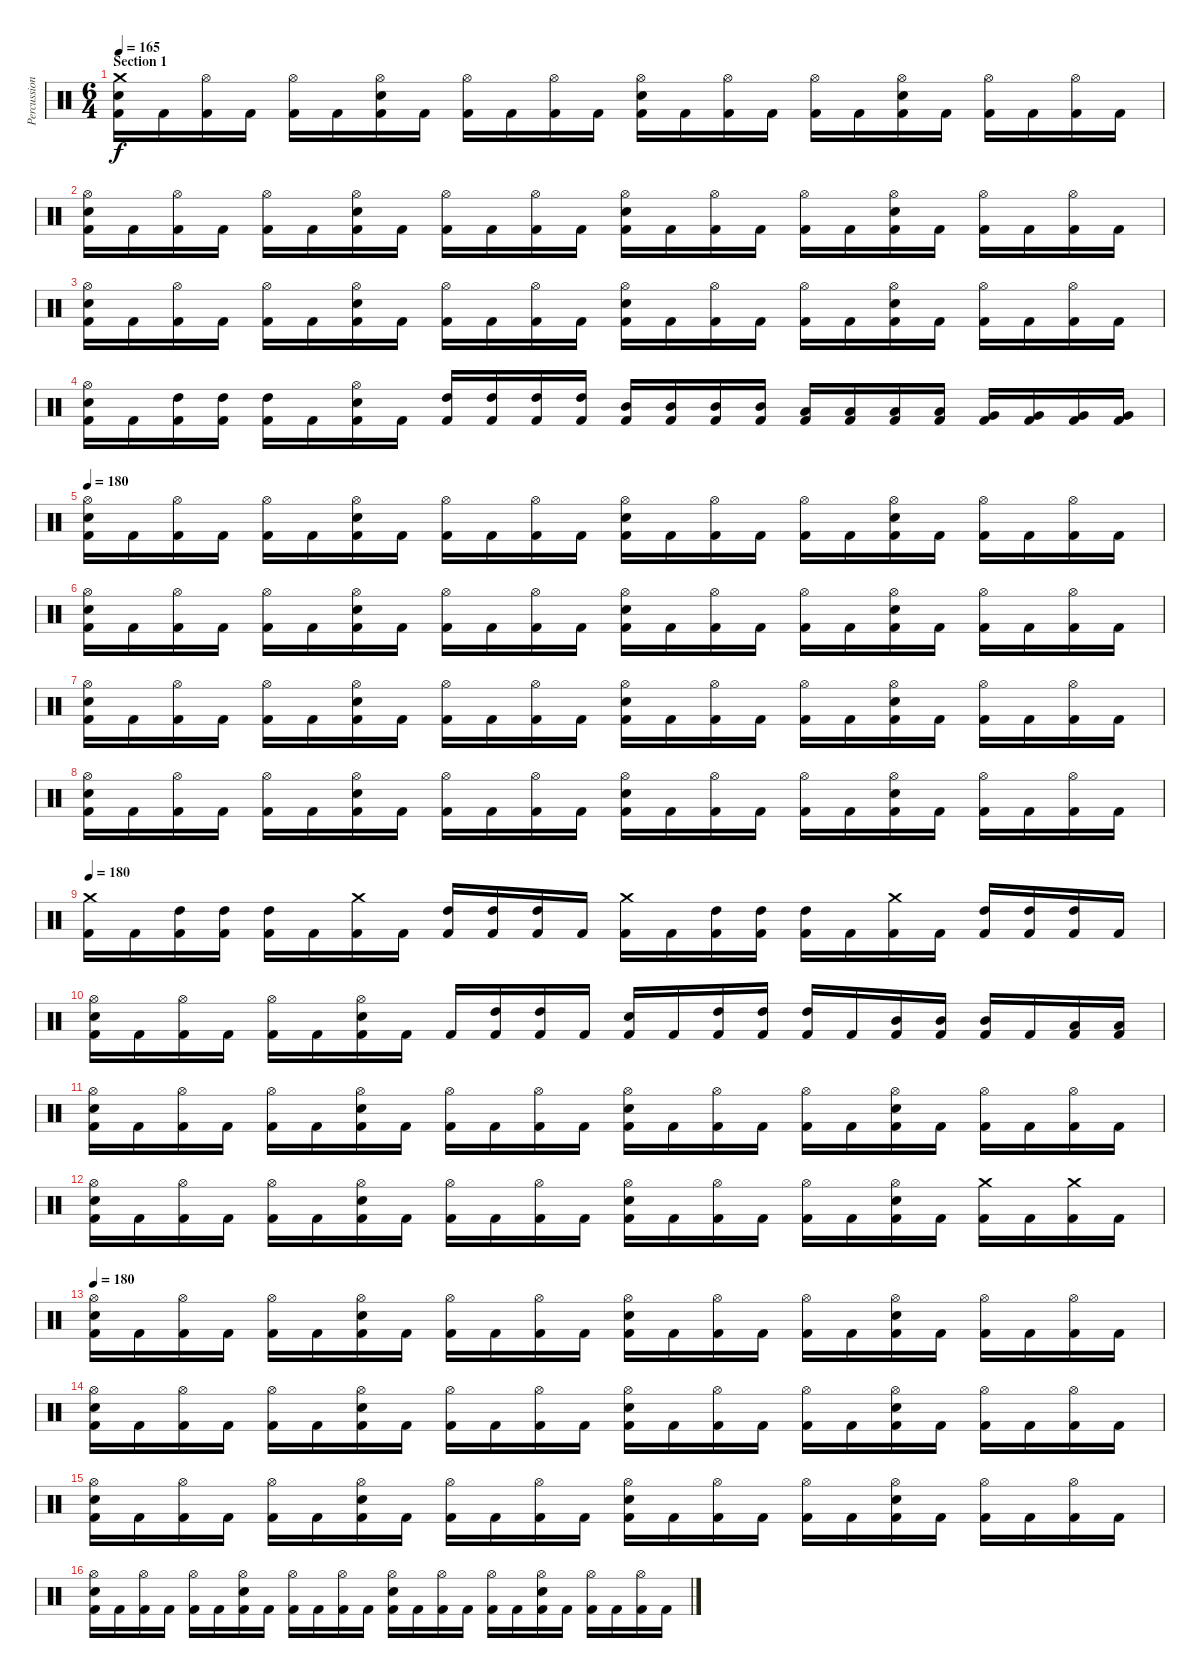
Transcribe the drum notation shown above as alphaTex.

\track ("Percussion" "Percussion") {instrument percussion}
\staff {score}
\articulation defaults
\ts (6 4)
\section ("" "Section 1")
\tempo 165
\tempo 180
\tempo 165
\clef neutral
\ks c
("Crash medium (hit)" "Electric Snare (hit)" "Kick (hit) 2").16{dy f} "Kick (hit) 2".16 ("Hi-Hat (open)" "Kick (hit) 2").16 "Kick (hit) 2".16 ("Hi-Hat (open)" "Kick (hit) 2").16 "Kick (hit) 2".16 ("Hi-Hat (open)" "Electric Snare (hit)" "Kick (hit) 2").16 "Kick (hit) 2".16 ("Hi-Hat (open)" "Kick (hit) 2").16 "Kick (hit) 2".16 ("Hi-Hat (open)" "Kick (hit) 2").16 "Kick (hit) 2".16 ("Hi-Hat (open)" "Electric Snare (hit)" "Kick (hit) 2").16 "Kick (hit) 2".16 ("Hi-Hat (open)" "Kick (hit) 2").16 "Kick (hit) 2".16 ("Hi-Hat (open)" "Kick (hit) 2").16 "Kick (hit) 2".16 ("Hi-Hat (open)" "Electric Snare (hit)" "Kick (hit) 2").16 "Kick (hit) 2".16 ("Hi-Hat (open)" "Kick (hit) 2").16 "Kick (hit) 2".16 ("Hi-Hat (open)" "Kick (hit) 2").16 "Kick (hit) 2".16 |
("Hi-Hat (open)" "Electric Snare (hit)" "Kick (hit) 2").16 "Kick (hit) 2".16 ("Hi-Hat (open)" "Kick (hit) 2").16 "Kick (hit) 2".16 ("Hi-Hat (open)" "Kick (hit) 2").16 "Kick (hit) 2".16 ("Hi-Hat (open)" "Electric Snare (hit)" "Kick (hit) 2").16 "Kick (hit) 2".16 ("Hi-Hat (open)" "Kick (hit) 2").16 "Kick (hit) 2".16 ("Hi-Hat (open)" "Kick (hit) 2").16 "Kick (hit) 2".16 ("Hi-Hat (open)" "Electric Snare (hit)" "Kick (hit) 2").16 "Kick (hit) 2".16 ("Hi-Hat (open)" "Kick (hit) 2").16 "Kick (hit) 2".16 ("Hi-Hat (open)" "Kick (hit) 2").16 "Kick (hit) 2".16 ("Hi-Hat (open)" "Electric Snare (hit)" "Kick (hit) 2").16 "Kick (hit) 2".16 ("Hi-Hat (open)" "Kick (hit) 2").16 "Kick (hit) 2".16 ("Hi-Hat (open)" "Kick (hit) 2").16 "Kick (hit) 2".16 |
("Hi-Hat (open)" "Electric Snare (hit)" "Kick (hit) 2").16 "Kick (hit) 2".16 ("Hi-Hat (open)" "Kick (hit) 2").16 "Kick (hit) 2".16 ("Hi-Hat (open)" "Kick (hit) 2").16 "Kick (hit) 2".16 ("Hi-Hat (open)" "Electric Snare (hit)" "Kick (hit) 2").16 "Kick (hit) 2".16 ("Hi-Hat (open)" "Kick (hit) 2").16 "Kick (hit) 2".16 ("Hi-Hat (open)" "Kick (hit) 2").16 "Kick (hit) 2".16 ("Hi-Hat (open)" "Electric Snare (hit)" "Kick (hit) 2").16 "Kick (hit) 2".16 ("Hi-Hat (open)" "Kick (hit) 2").16 "Kick (hit) 2".16 ("Hi-Hat (open)" "Kick (hit) 2").16 "Kick (hit) 2".16 ("Hi-Hat (open)" "Electric Snare (hit)" "Kick (hit) 2").16 "Kick (hit) 2".16 ("Hi-Hat (open)" "Kick (hit) 2").16 "Kick (hit) 2".16 ("Hi-Hat (open)" "Kick (hit) 2").16 "Kick (hit) 2".16 |
("Hi-Hat (open)" "Electric Snare (hit)" "Kick (hit) 2").16 "Kick (hit) 2".16 ("High Tom (hit)" "Kick (hit) 2").16 ("High Tom (hit)" "Kick (hit) 2").16 ("High Tom (hit)" "Kick (hit) 2").16 "Kick (hit) 2".16 ("Hi-Hat (open)" "Electric Snare (hit)" "Kick (hit) 2").16 "Kick (hit) 2".16 ("High Tom (hit)" "Kick (hit) 2").16 ("High Tom (hit)" "Kick (hit) 2").16 ("High Tom (hit)" "Kick (hit) 2").16 ("High Tom (hit)" "Kick (hit) 2").16 ("Mid Tom (hit)" "Kick (hit) 2").16 ("Mid Tom (hit)" "Kick (hit) 2").16 ("Mid Tom (hit)" "Kick (hit) 2").16 ("Mid Tom (hit)" "Kick (hit) 2").16 ("Low Tom (hit)" "Kick (hit) 2").16 ("Low Tom (hit)" "Kick (hit) 2").16 ("Low Tom (hit)" "Kick (hit) 2").16 ("Low Tom (hit)" "Kick (hit) 2").16 ("Very Low Tom (hit)" "Kick (hit) 2").16 ("Very Low Tom (hit)" "Kick (hit) 2").16 ("Very Low Tom (hit)" "Kick (hit) 2").16 ("Very Low Tom (hit)" "Kick (hit) 2").16 |
\tempo 180
("Hi-Hat (open)" "Electric Snare (hit)" "Kick (hit) 2").16 "Kick (hit) 2".16 ("Hi-Hat (open)" "Kick (hit) 2").16 "Kick (hit) 2".16 ("Hi-Hat (open)" "Kick (hit) 2").16 "Kick (hit) 2".16 ("Hi-Hat (open)" "Electric Snare (hit)" "Kick (hit) 2").16 "Kick (hit) 2".16 ("Hi-Hat (open)" "Kick (hit) 2").16 "Kick (hit) 2".16 ("Hi-Hat (open)" "Kick (hit) 2").16 "Kick (hit) 2".16 ("Hi-Hat (open)" "Electric Snare (hit)" "Kick (hit) 2").16 "Kick (hit) 2".16 ("Hi-Hat (open)" "Kick (hit) 2").16 "Kick (hit) 2".16 ("Hi-Hat (open)" "Kick (hit) 2").16 "Kick (hit) 2".16 ("Hi-Hat (open)" "Electric Snare (hit)" "Kick (hit) 2").16 "Kick (hit) 2".16 ("Hi-Hat (open)" "Kick (hit) 2").16 "Kick (hit) 2".16 ("Hi-Hat (open)" "Kick (hit) 2").16 "Kick (hit) 2".16 |
("Hi-Hat (open)" "Electric Snare (hit)" "Kick (hit) 2").16 "Kick (hit) 2".16 ("Hi-Hat (open)" "Kick (hit) 2").16 "Kick (hit) 2".16 ("Hi-Hat (open)" "Kick (hit) 2").16 "Kick (hit) 2".16 ("Hi-Hat (open)" "Electric Snare (hit)" "Kick (hit) 2").16 "Kick (hit) 2".16 ("Hi-Hat (open)" "Kick (hit) 2").16 "Kick (hit) 2".16 ("Hi-Hat (open)" "Kick (hit) 2").16 "Kick (hit) 2".16 ("Hi-Hat (open)" "Electric Snare (hit)" "Kick (hit) 2").16 "Kick (hit) 2".16 ("Hi-Hat (open)" "Kick (hit) 2").16 "Kick (hit) 2".16 ("Hi-Hat (open)" "Kick (hit) 2").16 "Kick (hit) 2".16 ("Hi-Hat (open)" "Electric Snare (hit)" "Kick (hit) 2").16 "Kick (hit) 2".16 ("Hi-Hat (open)" "Kick (hit) 2").16 "Kick (hit) 2".16 ("Hi-Hat (open)" "Kick (hit) 2").16 "Kick (hit) 2".16 |
("Hi-Hat (open)" "Electric Snare (hit)" "Kick (hit) 2").16 "Kick (hit) 2".16 ("Hi-Hat (open)" "Kick (hit) 2").16 "Kick (hit) 2".16 ("Hi-Hat (open)" "Kick (hit) 2").16 "Kick (hit) 2".16 ("Hi-Hat (open)" "Electric Snare (hit)" "Kick (hit) 2").16 "Kick (hit) 2".16 ("Hi-Hat (open)" "Kick (hit) 2").16 "Kick (hit) 2".16 ("Hi-Hat (open)" "Kick (hit) 2").16 "Kick (hit) 2".16 ("Hi-Hat (open)" "Electric Snare (hit)" "Kick (hit) 2").16 "Kick (hit) 2".16 ("Hi-Hat (open)" "Kick (hit) 2").16 "Kick (hit) 2".16 ("Hi-Hat (open)" "Kick (hit) 2").16 "Kick (hit) 2".16 ("Hi-Hat (open)" "Electric Snare (hit)" "Kick (hit) 2").16 "Kick (hit) 2".16 ("Hi-Hat (open)" "Kick (hit) 2").16 "Kick (hit) 2".16 ("Hi-Hat (open)" "Kick (hit) 2").16 "Kick (hit) 2".16 |
("Hi-Hat (open)" "Electric Snare (hit)" "Kick (hit) 2").16 "Kick (hit) 2".16 ("Hi-Hat (open)" "Kick (hit) 2").16 "Kick (hit) 2".16 ("Hi-Hat (open)" "Kick (hit) 2").16 "Kick (hit) 2".16 ("Hi-Hat (open)" "Electric Snare (hit)" "Kick (hit) 2").16 "Kick (hit) 2".16 ("Hi-Hat (open)" "Kick (hit) 2").16 "Kick (hit) 2".16 ("Hi-Hat (open)" "Kick (hit) 2").16 "Kick (hit) 2".16 ("Hi-Hat (open)" "Electric Snare (hit)" "Kick (hit) 2").16 "Kick (hit) 2".16 ("Hi-Hat (open)" "Kick (hit) 2").16 "Kick (hit) 2".16 ("Hi-Hat (open)" "Kick (hit) 2").16 "Kick (hit) 2".16 ("Hi-Hat (open)" "Electric Snare (hit)" "Kick (hit) 2").16 "Kick (hit) 2".16 ("Hi-Hat (open)" "Kick (hit) 2").16 "Kick (hit) 2".16 ("Hi-Hat (open)" "Kick (hit) 2").16 "Kick (hit) 2".16 |
\tempo 180
("Crash medium (hit)" "Kick (hit) 2").16 "Kick (hit) 2".16 ("High Tom (hit)" "Kick (hit) 2").16 ("High Tom (hit)" "Kick (hit) 2").16 ("High Tom (hit)" "Kick (hit) 2").16 "Kick (hit) 2".16 ("Crash medium (hit)" "Kick (hit) 2").16 "Kick (hit) 2".16 ("High Tom (hit)" "Kick (hit) 2").16 ("High Tom (hit)" "Kick (hit) 2").16 ("High Tom (hit)" "Kick (hit) 2").16 "Kick (hit) 2".16 ("Crash medium (hit)" "Kick (hit) 2").16 "Kick (hit) 2".16 ("High Tom (hit)" "Kick (hit) 2").16 ("High Tom (hit)" "Kick (hit) 2").16 ("High Tom (hit)" "Kick (hit) 2").16 "Kick (hit) 2".16 ("Crash medium (hit)" "Kick (hit) 2").16 "Kick (hit) 2".16 ("High Tom (hit)" "Kick (hit) 2").16 ("High Tom (hit)" "Kick (hit) 2").16 ("High Tom (hit)" "Kick (hit) 2").16 "Kick (hit) 2".16 |
("Hi-Hat (open)" "Electric Snare (hit)" "Kick (hit) 2").16 "Kick (hit) 2".16 ("Hi-Hat (open)" "Kick (hit) 2").16 "Kick (hit) 2".16 ("Hi-Hat (open)" "Kick (hit) 2").16 "Kick (hit) 2".16 ("Hi-Hat (open)" "Electric Snare (hit)" "Kick (hit) 2").16 "Kick (hit) 2".16 "Kick (hit) 2".16 ("High Tom (hit)" "Kick (hit) 2").16 ("High Tom (hit)" "Kick (hit) 2").16 "Kick (hit) 2".16 ("Electric Snare (hit)" "Kick (hit) 2").16 "Kick (hit) 2".16 ("High Tom (hit)" "Kick (hit) 2").16 ("High Tom (hit)" "Kick (hit) 2").16 ("High Tom (hit)" "Kick (hit) 2").16 "Kick (hit) 2".16 ("Mid Tom (hit)" "Kick (hit) 2").16 ("Mid Tom (hit)" "Kick (hit) 2").16 ("Mid Tom (hit)" "Kick (hit) 2").16 "Kick (hit) 2".16 ("Low Tom (hit)" "Kick (hit) 2").16 ("Low Tom (hit)" "Kick (hit) 2").16 |
("Hi-Hat (open)" "Electric Snare (hit)" "Kick (hit) 2").16 "Kick (hit) 2".16 ("Hi-Hat (open)" "Kick (hit) 2").16 "Kick (hit) 2".16 ("Hi-Hat (open)" "Kick (hit) 2").16 "Kick (hit) 2".16 ("Hi-Hat (open)" "Electric Snare (hit)" "Kick (hit) 2").16 "Kick (hit) 2".16 ("Hi-Hat (open)" "Kick (hit) 2").16 "Kick (hit) 2".16 ("Hi-Hat (open)" "Kick (hit) 2").16 "Kick (hit) 2".16 ("Hi-Hat (open)" "Electric Snare (hit)" "Kick (hit) 2").16 "Kick (hit) 2".16 ("Hi-Hat (open)" "Kick (hit) 2").16 "Kick (hit) 2".16 ("Hi-Hat (open)" "Kick (hit) 2").16 "Kick (hit) 2".16 ("Hi-Hat (open)" "Electric Snare (hit)" "Kick (hit) 2").16 "Kick (hit) 2".16 ("Hi-Hat (open)" "Kick (hit) 2").16 "Kick (hit) 2".16 ("Hi-Hat (open)" "Kick (hit) 2").16 "Kick (hit) 2".16 |
("Hi-Hat (open)" "Electric Snare (hit)" "Kick (hit) 2").16 "Kick (hit) 2".16 ("Hi-Hat (open)" "Kick (hit) 2").16 "Kick (hit) 2".16 ("Hi-Hat (open)" "Kick (hit) 2").16 "Kick (hit) 2".16 ("Hi-Hat (open)" "Electric Snare (hit)" "Kick (hit) 2").16 "Kick (hit) 2".16 ("Hi-Hat (open)" "Kick (hit) 2").16 "Kick (hit) 2".16 ("Hi-Hat (open)" "Kick (hit) 2").16 "Kick (hit) 2".16 ("Hi-Hat (open)" "Electric Snare (hit)" "Kick (hit) 2").16 "Kick (hit) 2".16 ("Hi-Hat (open)" "Kick (hit) 2").16 "Kick (hit) 2".16 ("Hi-Hat (open)" "Kick (hit) 2").16 "Kick (hit) 2".16 ("Hi-Hat (open)" "Electric Snare (hit)" "Kick (hit) 2").16 "Kick (hit) 2".16 ("Crash medium (hit)" "Kick (hit) 2").16 "Kick (hit) 2".16 ("Crash medium (hit)" "Kick (hit) 2").16 "Kick (hit) 2".16 |
\tempo 180
("Hi-Hat (open)" "Electric Snare (hit)" "Kick (hit) 2").16 "Kick (hit) 2".16 ("Hi-Hat (open)" "Kick (hit) 2").16 "Kick (hit) 2".16 ("Hi-Hat (open)" "Kick (hit) 2").16 "Kick (hit) 2".16 ("Hi-Hat (open)" "Electric Snare (hit)" "Kick (hit) 2").16 "Kick (hit) 2".16 ("Hi-Hat (open)" "Kick (hit) 2").16 "Kick (hit) 2".16 ("Hi-Hat (open)" "Kick (hit) 2").16 "Kick (hit) 2".16 ("Hi-Hat (open)" "Electric Snare (hit)" "Kick (hit) 2").16 "Kick (hit) 2".16 ("Hi-Hat (open)" "Kick (hit) 2").16 "Kick (hit) 2".16 ("Hi-Hat (open)" "Kick (hit) 2").16 "Kick (hit) 2".16 ("Hi-Hat (open)" "Electric Snare (hit)" "Kick (hit) 2").16 "Kick (hit) 2".16 ("Hi-Hat (open)" "Kick (hit) 2").16 "Kick (hit) 2".16 ("Hi-Hat (open)" "Kick (hit) 2").16 "Kick (hit) 2".16 |
("Hi-Hat (open)" "Electric Snare (hit)" "Kick (hit) 2").16 "Kick (hit) 2".16 ("Hi-Hat (open)" "Kick (hit) 2").16 "Kick (hit) 2".16 ("Hi-Hat (open)" "Kick (hit) 2").16 "Kick (hit) 2".16 ("Hi-Hat (open)" "Electric Snare (hit)" "Kick (hit) 2").16 "Kick (hit) 2".16 ("Hi-Hat (open)" "Kick (hit) 2").16 "Kick (hit) 2".16 ("Hi-Hat (open)" "Kick (hit) 2").16 "Kick (hit) 2".16 ("Hi-Hat (open)" "Electric Snare (hit)" "Kick (hit) 2").16 "Kick (hit) 2".16 ("Hi-Hat (open)" "Kick (hit) 2").16 "Kick (hit) 2".16 ("Hi-Hat (open)" "Kick (hit) 2").16 "Kick (hit) 2".16 ("Hi-Hat (open)" "Electric Snare (hit)" "Kick (hit) 2").16 "Kick (hit) 2".16 ("Hi-Hat (open)" "Kick (hit) 2").16 "Kick (hit) 2".16 ("Hi-Hat (open)" "Kick (hit) 2").16 "Kick (hit) 2".16 |
("Hi-Hat (open)" "Electric Snare (hit)" "Kick (hit) 2").16 "Kick (hit) 2".16 ("Hi-Hat (open)" "Kick (hit) 2").16 "Kick (hit) 2".16 ("Hi-Hat (open)" "Kick (hit) 2").16 "Kick (hit) 2".16 ("Hi-Hat (open)" "Electric Snare (hit)" "Kick (hit) 2").16 "Kick (hit) 2".16 ("Hi-Hat (open)" "Kick (hit) 2").16 "Kick (hit) 2".16 ("Hi-Hat (open)" "Kick (hit) 2").16 "Kick (hit) 2".16 ("Hi-Hat (open)" "Electric Snare (hit)" "Kick (hit) 2").16 "Kick (hit) 2".16 ("Hi-Hat (open)" "Kick (hit) 2").16 "Kick (hit) 2".16 ("Hi-Hat (open)" "Kick (hit) 2").16 "Kick (hit) 2".16 ("Hi-Hat (open)" "Electric Snare (hit)" "Kick (hit) 2").16 "Kick (hit) 2".16 ("Hi-Hat (open)" "Kick (hit) 2").16 "Kick (hit) 2".16 ("Hi-Hat (open)" "Kick (hit) 2").16 "Kick (hit) 2".16 |
("Hi-Hat (open)" "Electric Snare (hit)" "Kick (hit) 2").16 "Kick (hit) 2".16 ("Hi-Hat (open)" "Kick (hit) 2").16 "Kick (hit) 2".16 ("Hi-Hat (open)" "Kick (hit) 2").16 "Kick (hit) 2".16 ("Hi-Hat (open)" "Electric Snare (hit)" "Kick (hit) 2").16 "Kick (hit) 2".16 ("Hi-Hat (open)" "Kick (hit) 2").16 "Kick (hit) 2".16 ("Hi-Hat (open)" "Kick (hit) 2").16 "Kick (hit) 2".16 ("Hi-Hat (open)" "Electric Snare (hit)" "Kick (hit) 2").16 "Kick (hit) 2".16 ("Hi-Hat (open)" "Kick (hit) 2").16 "Kick (hit) 2".16 ("Hi-Hat (open)" "Kick (hit) 2").16 "Kick (hit) 2".16 ("Hi-Hat (open)" "Electric Snare (hit)" "Kick (hit) 2").16 "Kick (hit) 2".16 ("Hi-Hat (open)" "Kick (hit) 2").16 "Kick (hit) 2".16 ("Hi-Hat (open)" "Kick (hit) 2").16 "Kick (hit) 2".16
